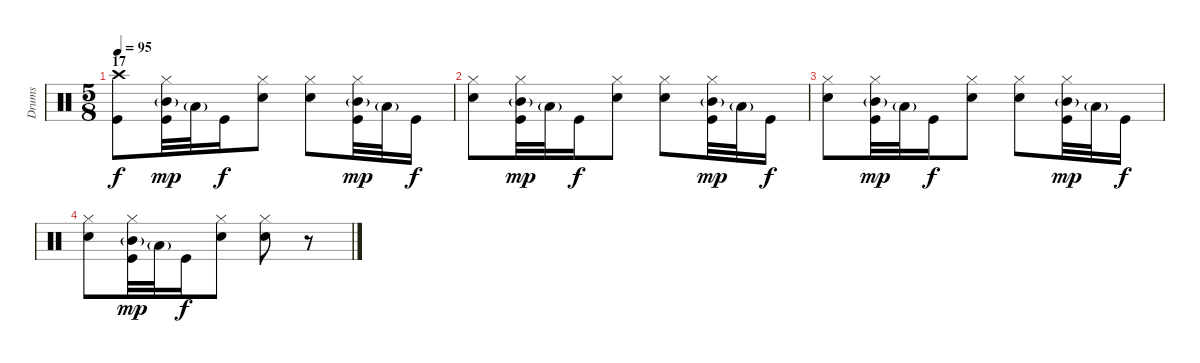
\track ("Drums" "Drums") {instrument percussion}
\staff
\articulation defaults
\ts (5 8)
\section ("" "17")
\tempo 95
\clef neutral
\ks c
("Crash high (hit)" "Kick (hit)").8{dy f} ("Hi-Hat (closed)" "Mid Tom (hit)"{g} "Kick (hit)").32{dy mp} "Low Tom (hit)"{g}.32 "Kick (hit)".16{dy f} ("Hi-Hat (closed)" "Electric Snare (hit)").8 ("Hi-Hat (closed)" "Electric Snare (hit)").8 ("Hi-Hat (closed)" "Mid Tom (hit)"{g} "Kick (hit)").32{dy mp} "Low Tom (hit)"{g}.32 "Kick (hit)".16{dy f} |
("Hi-Hat (closed)" "Electric Snare (hit)").8 ("Hi-Hat (closed)" "Mid Tom (hit)"{g} "Kick (hit)").32{dy mp} "Low Tom (hit)"{g}.32 "Kick (hit)".16{dy f} ("Hi-Hat (closed)" "Electric Snare (hit)").8 ("Hi-Hat (closed)" "Electric Snare (hit)").8 ("Hi-Hat (closed)" "Mid Tom (hit)"{g} "Kick (hit)").32{dy mp} "Low Tom (hit)"{g}.32 "Kick (hit)".16{dy f} |
("Hi-Hat (closed)" "Electric Snare (hit)").8 ("Hi-Hat (closed)" "Mid Tom (hit)"{g} "Kick (hit)").32{dy mp} "Low Tom (hit)"{g}.32 "Kick (hit)".16{dy f} ("Hi-Hat (closed)" "Electric Snare (hit)").8 ("Hi-Hat (closed)" "Electric Snare (hit)").8 ("Hi-Hat (closed)" "Mid Tom (hit)"{g} "Kick (hit)").32{dy mp} "Low Tom (hit)"{g}.32 "Kick (hit)".16{dy f} |
("Hi-Hat (closed)" "Electric Snare (hit)").8 ("Hi-Hat (closed)" "Mid Tom (hit)"{g} "Kick (hit)").32{dy mp} "Low Tom (hit)"{g}.32 "Kick (hit)".16{dy f} ("Hi-Hat (closed)" "Electric Snare (hit)").8 ("Hi-Hat (closed)" "Electric Snare (hit)").8 r.8
